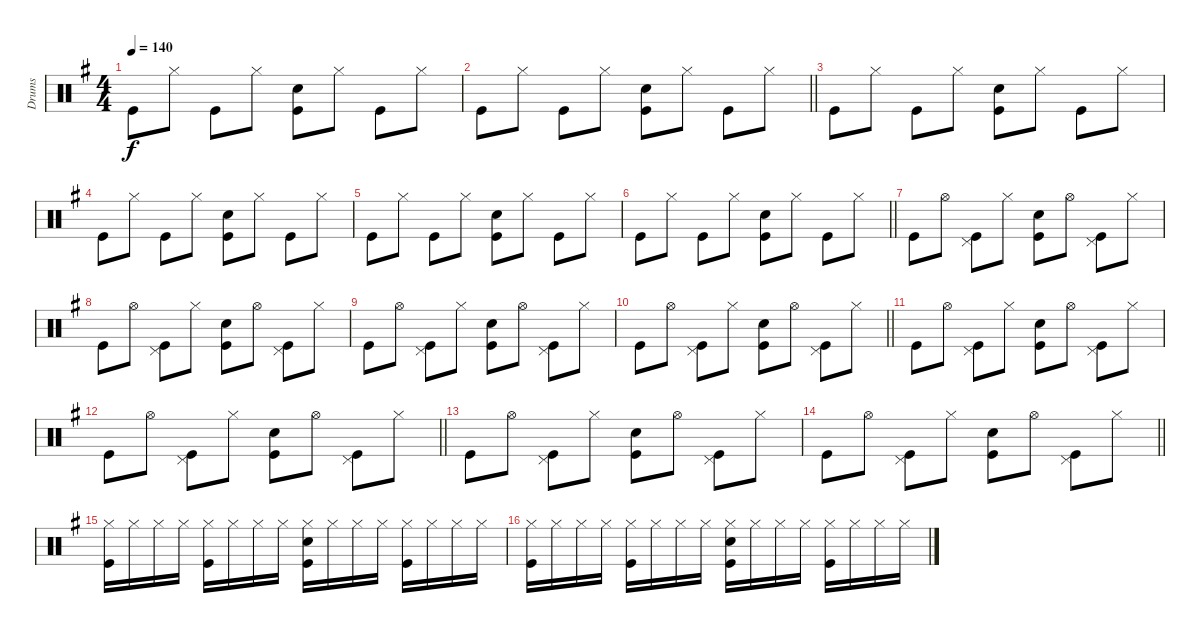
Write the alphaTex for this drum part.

\track ("Drums" "Drums") {instrument percussion}
\staff {score}
\articulation defaults
\ts (4 4)
\tempo 140
\clef neutral
\ks g "Kick (hit)".8{dy f} "Hi-Hat (closed)".8 "Kick (hit)".8 "Hi-Hat (closed)".8
("Snare (hit) 2" "Kick (hit)").8 "Hi-Hat (closed)".8 "Kick (hit)".8 "Hi-Hat (closed)".8 |
\barLineRight lightlight "Kick (hit)".8 "Hi-Hat (closed)".8 "Kick (hit)".8 "Hi-Hat (closed)".8
("Snare (hit) 2" "Kick (hit)").8 "Hi-Hat (closed)".8 "Kick (hit)".8 "Hi-Hat (closed)".8 |
"Kick (hit)".8 "Hi-Hat (closed)".8 "Kick (hit)".8 "Hi-Hat (closed)".8 ("Snare (hit) 2" "Kick (hit)").8 "Hi-Hat (closed)".8 "Kick (hit)".8 "Hi-Hat (closed)".8 |
"Kick (hit)".8 "Hi-Hat (closed)".8 "Kick (hit)".8 "Hi-Hat (closed)".8 ("Snare (hit) 2" "Kick (hit)").8 "Hi-Hat (closed)".8 "Kick (hit)".8 "Hi-Hat (closed)".8 |
"Kick (hit)".8 "Hi-Hat (closed)".8 "Kick (hit)".8 "Hi-Hat (closed)".8 ("Snare (hit) 2" "Kick (hit)").8 "Hi-Hat (closed)".8 "Kick (hit)".8 "Hi-Hat (closed)".8 |
\barLineRight lightlight "Kick (hit)".8 "Hi-Hat (closed)".8 "Kick (hit)".8 "Hi-Hat (closed)".8
("Snare (hit) 2" "Kick (hit)").8 "Hi-Hat (closed)".8 "Kick (hit)".8 "Hi-Hat (closed)".8 |
"Kick (hit)".8 "Hi-Hat (open)".8 ("Pedal Hi-Hat (hit)" "Kick (hit)").8 "Hi-Hat (closed)".8 ("Snare (hit) 2" "Kick (hit)").8 "Hi-Hat (open)".8 ("Pedal Hi-Hat (hit)" "Kick (hit)").8 "Hi-Hat (closed)".8 |
"Kick (hit)".8 "Hi-Hat (open)".8 ("Pedal Hi-Hat (hit)" "Kick (hit)").8 "Hi-Hat (closed)".8 ("Snare (hit) 2" "Kick (hit)").8 "Hi-Hat (open)".8 ("Pedal Hi-Hat (hit)" "Kick (hit)").8 "Hi-Hat (closed)".8 |
"Kick (hit)".8 "Hi-Hat (open)".8 ("Pedal Hi-Hat (hit)" "Kick (hit)").8 "Hi-Hat (closed)".8 ("Snare (hit) 2" "Kick (hit)").8 "Hi-Hat (open)".8 ("Pedal Hi-Hat (hit)" "Kick (hit)").8 "Hi-Hat (closed)".8 |
\barLineRight lightlight "Kick (hit)".8 "Hi-Hat (open)".8
("Pedal Hi-Hat (hit)" "Kick (hit)").8 "Hi-Hat (closed)".8 ("Snare (hit) 2" "Kick (hit)").8 "Hi-Hat (open)".8 ("Pedal Hi-Hat (hit)" "Kick (hit)").8 "Hi-Hat (closed)".8 |
"Kick (hit)".8 "Hi-Hat (open)".8 ("Pedal Hi-Hat (hit)" "Kick (hit)").8 "Hi-Hat (closed)".8 ("Snare (hit) 2" "Kick (hit)").8 "Hi-Hat (open)".8 ("Pedal Hi-Hat (hit)" "Kick (hit)").8 "Hi-Hat (closed)".8 |
\barLineRight lightlight "Kick (hit)".8 "Hi-Hat (open)".8
("Pedal Hi-Hat (hit)" "Kick (hit)").8 "Hi-Hat (closed)".8 ("Snare (hit) 2" "Kick (hit)").8 "Hi-Hat (open)".8 ("Pedal Hi-Hat (hit)" "Kick (hit)").8 "Hi-Hat (closed)".8 |
"Kick (hit)".8 "Hi-Hat (open)".8 ("Pedal Hi-Hat (hit)" "Kick (hit)").8 "Hi-Hat (closed)".8 ("Snare (hit) 2" "Kick (hit)").8 "Hi-Hat (open)".8 ("Pedal Hi-Hat (hit)" "Kick (hit)").8 "Hi-Hat (closed)".8 |
\barLineRight lightlight "Kick (hit)".8 "Hi-Hat (open)".8
("Pedal Hi-Hat (hit)" "Kick (hit)").8 "Hi-Hat (closed)".8 ("Snare (hit) 2" "Kick (hit)").8 "Hi-Hat (open)".8 ("Pedal Hi-Hat (hit)" "Kick (hit)").8 "Hi-Hat (closed)".8 |
("Hi-Hat (closed)" "Kick (hit)").16 "Hi-Hat (closed)".16 "Hi-Hat (closed)".16 "Hi-Hat (closed)".16 ("Hi-Hat (closed)" "Kick (hit)").16 "Hi-Hat (closed)".16 "Hi-Hat (closed)".16 "Hi-Hat (closed)".16 ("Hi-Hat (closed)" "Snare (hit) 2" "Kick (hit)").16 "Hi-Hat (closed)".16 "Hi-Hat (closed)".16 "Hi-Hat (closed)".16 ("Hi-Hat (closed)" "Kick (hit)").16 "Hi-Hat (closed)".16 "Hi-Hat (closed)".16 "Hi-Hat (closed)".16 |
("Hi-Hat (closed)" "Kick (hit)").16 "Hi-Hat (closed)".16 "Hi-Hat (closed)".16 "Hi-Hat (closed)".16 ("Hi-Hat (closed)" "Kick (hit)").16 "Hi-Hat (closed)".16 "Hi-Hat (closed)".16 "Hi-Hat (closed)".16 ("Hi-Hat (closed)" "Snare (hit) 2" "Kick (hit)").16 "Hi-Hat (closed)".16 "Hi-Hat (closed)".16 "Hi-Hat (closed)".16 ("Hi-Hat (closed)" "Kick (hit)").16 "Hi-Hat (closed)".16 "Hi-Hat (closed)".16 "Hi-Hat (closed)".16
